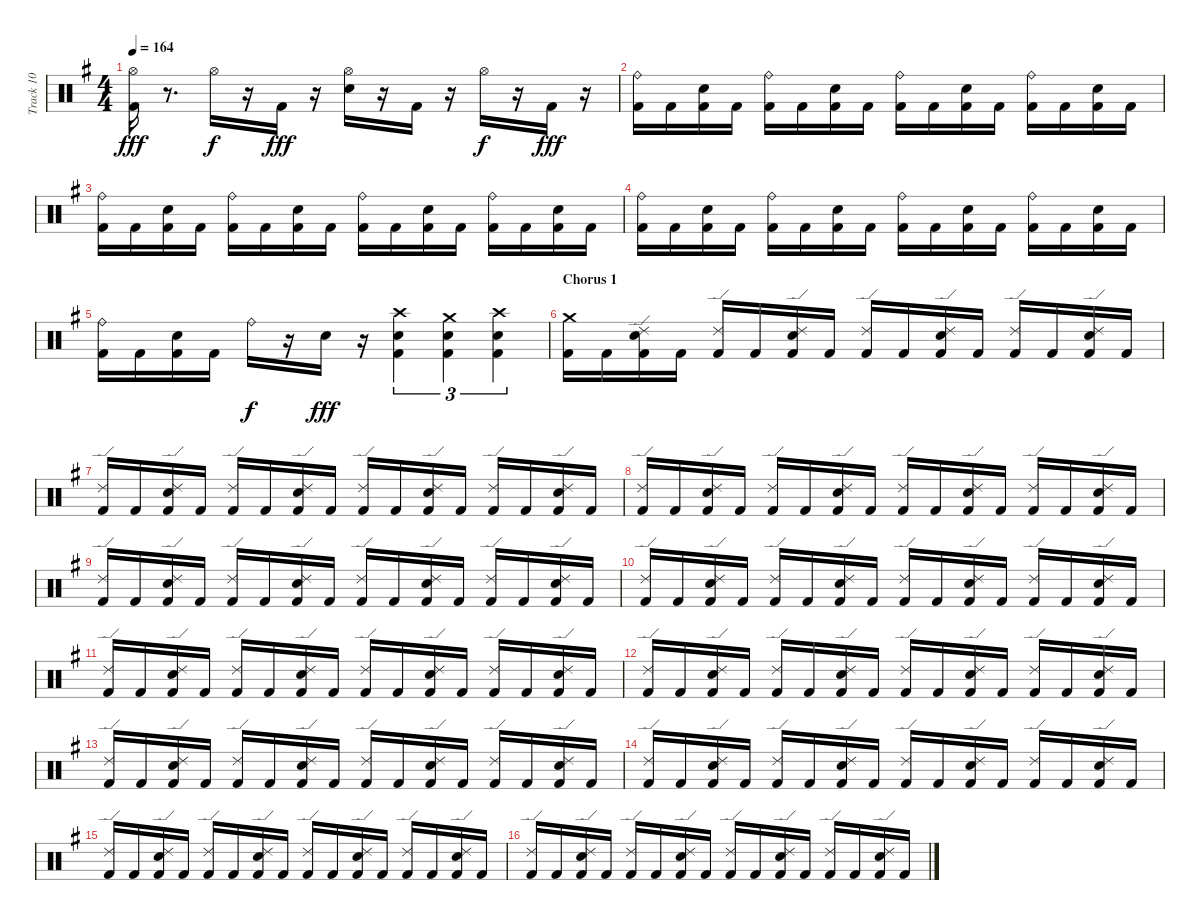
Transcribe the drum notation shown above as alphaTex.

\track ("Track 10" "Track 10") {instrument percussion}
\staff {score}
\articulation defaults
\ts (4 4)
\tempo 164
\clef neutral
\ks eminor
("Kick (hit) 2" "Hi-Hat (open)").16{dy fff} r.8{d} "Hi-Hat (open)".16{dy f} r.16 "Kick (hit) 2".16{dy fff} r.16 ("Electric Snare (hit)" "Hi-Hat (open)").16 r.16 "Kick (hit) 2".16 r.16 "Hi-Hat (open)".16{dy f} r.16 "Kick (hit) 2".16{dy fff} r.16 |
("Kick (hit) 2" "Ride (bell)").16 "Kick (hit) 2".16 ("Electric Snare (hit)" "Kick (hit) 2").16 "Kick (hit) 2".16 ("Kick (hit) 2" "Ride (bell)").16 "Kick (hit) 2".16 ("Electric Snare (hit)" "Kick (hit) 2").16 "Kick (hit) 2".16 ("Kick (hit) 2" "Ride (bell)").16 "Kick (hit) 2".16 ("Kick (hit) 2" "Electric Snare (hit)").16 "Kick (hit) 2".16 ("Kick (hit) 2" "Ride (bell)").16 "Kick (hit) 2".16 ("Electric Snare (hit)" "Kick (hit) 2").16 "Kick (hit) 2".16 |
("Kick (hit) 2" "Ride (bell)").16 "Kick (hit) 2".16 ("Electric Snare (hit)" "Kick (hit) 2").16 "Kick (hit) 2".16 ("Kick (hit) 2" "Ride (bell)").16 "Kick (hit) 2".16 ("Kick (hit) 2" "Electric Snare (hit)").16 "Kick (hit) 2".16 ("Kick (hit) 2" "Ride (bell)").16 "Kick (hit) 2".16 ("Kick (hit) 2" "Electric Snare (hit)").16 "Kick (hit) 2".16 ("Kick (hit) 2" "Ride (bell)").16 "Kick (hit) 2".16 ("Kick (hit) 2" "Electric Snare (hit)").16 "Kick (hit) 2".16 |
("Kick (hit) 2" "Ride (bell)").16 "Kick (hit) 2".16 ("Kick (hit) 2" "Electric Snare (hit)").16 "Kick (hit) 2".16 ("Kick (hit) 2" "Ride (bell)").16 "Kick (hit) 2".16 ("Electric Snare (hit)" "Kick (hit) 2").16 "Kick (hit) 2".16 ("Kick (hit) 2" "Ride (bell)").16 "Kick (hit) 2".16 ("Kick (hit) 2" "Electric Snare (hit)").16 "Kick (hit) 2".16 ("Kick (hit) 2" "Ride (bell)").16 "Kick (hit) 2".16 ("Electric Snare (hit)" "Kick (hit) 2").16 "Kick (hit) 2".16 |
("Kick (hit) 2" "Ride (bell)").16 "Kick (hit) 2".16 ("Kick (hit) 2" "Electric Snare (hit)").16 "Kick (hit) 2".16 "Ride (bell)".16{dy f} r.16 "Electric Snare (hit)".16{dy fff} r.16 ("Electric Snare (hit)" "Kick (hit) 2" "Crash high (hit)").4{tu (3 2)} ("Electric Snare (hit)" "Kick (hit) 2" "Crash medium (hit)").4{tu (3 2)} ("Kick (hit) 2" "Electric Snare (hit)" "Crash high (hit)").4{tu (3 2)} |
\section ("" "Chorus 1")
("Kick (hit) 2" "Crash medium (hit)").16 "Kick (hit) 2".16 ("Kick (hit) 2" "Electric Snare (hit)" "Ride (edge) 2").16 "Kick (hit) 2".16 ("Kick (hit) 2" "Ride (edge) 2").16 "Kick (hit) 2".16 ("Kick (hit) 2" "Electric Snare (hit)" "Ride (edge) 2").16 "Kick (hit) 2".16 ("Kick (hit) 2" "Ride (edge) 2").16 "Kick (hit) 2".16 ("Electric Snare (hit)" "Kick (hit) 2" "Ride (edge) 2").16 "Kick (hit) 2".16 ("Kick (hit) 2" "Ride (edge) 2").16 "Kick (hit) 2".16 ("Electric Snare (hit)" "Kick (hit) 2" "Ride (edge) 2").16 "Kick (hit) 2".16 |
("Kick (hit) 2" "Ride (edge) 2").16 "Kick (hit) 2".16 ("Kick (hit) 2" "Electric Snare (hit)" "Ride (edge) 2").16 "Kick (hit) 2".16 ("Kick (hit) 2" "Ride (edge) 2").16 "Kick (hit) 2".16 ("Kick (hit) 2" "Electric Snare (hit)" "Ride (edge) 2").16 "Kick (hit) 2".16 ("Kick (hit) 2" "Ride (edge) 2").16 "Kick (hit) 2".16 ("Kick (hit) 2" "Electric Snare (hit)" "Ride (edge) 2").16 "Kick (hit) 2".16 ("Kick (hit) 2" "Ride (edge) 2").16 "Kick (hit) 2".16 ("Kick (hit) 2" "Electric Snare (hit)" "Ride (edge) 2").16 "Kick (hit) 2".16 |
("Kick (hit) 2" "Ride (edge) 2").16 "Kick (hit) 2".16 ("Electric Snare (hit)" "Kick (hit) 2" "Ride (edge) 2").16 "Kick (hit) 2".16 ("Kick (hit) 2" "Ride (edge) 2").16 "Kick (hit) 2".16 ("Kick (hit) 2" "Electric Snare (hit)" "Ride (edge) 2").16 "Kick (hit) 2".16 ("Kick (hit) 2" "Ride (edge) 2").16 "Kick (hit) 2".16 ("Kick (hit) 2" "Electric Snare (hit)" "Ride (edge) 2").16 "Kick (hit) 2".16 ("Kick (hit) 2" "Ride (edge) 2").16 "Kick (hit) 2".16 ("Kick (hit) 2" "Electric Snare (hit)" "Ride (edge) 2").16 "Kick (hit) 2".16 |
("Kick (hit) 2" "Ride (edge) 2").16 "Kick (hit) 2".16 ("Kick (hit) 2" "Electric Snare (hit)" "Ride (edge) 2").16 "Kick (hit) 2".16 ("Kick (hit) 2" "Ride (edge) 2").16 "Kick (hit) 2".16 ("Kick (hit) 2" "Electric Snare (hit)" "Ride (edge) 2").16 "Kick (hit) 2".16 ("Kick (hit) 2" "Ride (edge) 2").16 "Kick (hit) 2".16 ("Kick (hit) 2" "Electric Snare (hit)" "Ride (edge) 2").16 "Kick (hit) 2".16 ("Kick (hit) 2" "Ride (edge) 2").16 "Kick (hit) 2".16 ("Kick (hit) 2" "Electric Snare (hit)" "Ride (edge) 2").16 "Kick (hit) 2".16 |
("Kick (hit) 2" "Ride (edge) 2").16 "Kick (hit) 2".16 ("Electric Snare (hit)" "Kick (hit) 2" "Ride (edge) 2").16 "Kick (hit) 2".16 ("Kick (hit) 2" "Ride (edge) 2").16 "Kick (hit) 2".16 ("Electric Snare (hit)" "Kick (hit) 2" "Ride (edge) 2").16 "Kick (hit) 2".16 ("Kick (hit) 2" "Ride (edge) 2").16 "Kick (hit) 2".16 ("Kick (hit) 2" "Electric Snare (hit)" "Ride (edge) 2").16 "Kick (hit) 2".16 ("Kick (hit) 2" "Ride (edge) 2").16 "Kick (hit) 2".16 ("Kick (hit) 2" "Electric Snare (hit)" "Ride (edge) 2").16 "Kick (hit) 2".16 |
("Kick (hit) 2" "Ride (edge) 2").16 "Kick (hit) 2".16 ("Electric Snare (hit)" "Kick (hit) 2" "Ride (edge) 2").16 "Kick (hit) 2".16 ("Kick (hit) 2" "Ride (edge) 2").16 "Kick (hit) 2".16 ("Kick (hit) 2" "Electric Snare (hit)" "Ride (edge) 2").16 "Kick (hit) 2".16 ("Kick (hit) 2" "Ride (edge) 2").16 "Kick (hit) 2".16 ("Electric Snare (hit)" "Kick (hit) 2" "Ride (edge) 2").16 "Kick (hit) 2".16 ("Kick (hit) 2" "Ride (edge) 2").16 "Kick (hit) 2".16 ("Electric Snare (hit)" "Kick (hit) 2" "Ride (edge) 2").16 "Kick (hit) 2".16 |
("Kick (hit) 2" "Ride (edge) 2").16 "Kick (hit) 2".16 ("Kick (hit) 2" "Electric Snare (hit)" "Ride (edge) 2").16 "Kick (hit) 2".16 ("Kick (hit) 2" "Ride (edge) 2").16 "Kick (hit) 2".16 ("Electric Snare (hit)" "Kick (hit) 2" "Ride (edge) 2").16 "Kick (hit) 2".16 ("Kick (hit) 2" "Ride (edge) 2").16 "Kick (hit) 2".16 ("Electric Snare (hit)" "Kick (hit) 2" "Ride (edge) 2").16 "Kick (hit) 2".16 ("Kick (hit) 2" "Ride (edge) 2").16 "Kick (hit) 2".16 ("Kick (hit) 2" "Electric Snare (hit)" "Ride (edge) 2").16 "Kick (hit) 2".16 |
("Kick (hit) 2" "Ride (edge) 2").16 "Kick (hit) 2".16 ("Electric Snare (hit)" "Kick (hit) 2" "Ride (edge) 2").16 "Kick (hit) 2".16 ("Kick (hit) 2" "Ride (edge) 2").16 "Kick (hit) 2".16 ("Electric Snare (hit)" "Kick (hit) 2" "Ride (edge) 2").16 "Kick (hit) 2".16 ("Kick (hit) 2" "Ride (edge) 2").16 "Kick (hit) 2".16 ("Electric Snare (hit)" "Kick (hit) 2" "Ride (edge) 2").16 "Kick (hit) 2".16 ("Kick (hit) 2" "Ride (edge) 2").16 "Kick (hit) 2".16 ("Electric Snare (hit)" "Kick (hit) 2" "Ride (edge) 2").16 "Kick (hit) 2".16 |
("Kick (hit) 2" "Ride (edge) 2").16 "Kick (hit) 2".16 ("Kick (hit) 2" "Electric Snare (hit)" "Ride (edge) 2").16 "Kick (hit) 2".16 ("Kick (hit) 2" "Ride (edge) 2").16 "Kick (hit) 2".16 ("Kick (hit) 2" "Electric Snare (hit)" "Ride (edge) 2").16 "Kick (hit) 2".16 ("Kick (hit) 2" "Ride (edge) 2").16 "Kick (hit) 2".16 ("Electric Snare (hit)" "Kick (hit) 2" "Ride (edge) 2").16 "Kick (hit) 2".16 ("Kick (hit) 2" "Ride (edge) 2").16 "Kick (hit) 2".16 ("Electric Snare (hit)" "Kick (hit) 2" "Ride (edge) 2").16 "Kick (hit) 2".16 |
("Kick (hit) 2" "Ride (edge) 2").16 "Kick (hit) 2".16 ("Electric Snare (hit)" "Kick (hit) 2" "Ride (edge) 2").16 "Kick (hit) 2".16 ("Kick (hit) 2" "Ride (edge) 2").16 "Kick (hit) 2".16 ("Electric Snare (hit)" "Kick (hit) 2" "Ride (edge) 2").16 "Kick (hit) 2".16 ("Kick (hit) 2" "Ride (edge) 2").16 "Kick (hit) 2".16 ("Electric Snare (hit)" "Kick (hit) 2" "Ride (edge) 2").16 "Kick (hit) 2".16 ("Kick (hit) 2" "Ride (edge) 2").16 "Kick (hit) 2".16 ("Kick (hit) 2" "Electric Snare (hit)" "Ride (edge) 2").16 "Kick (hit) 2".16 |
("Kick (hit) 2" "Ride (edge) 2").16 "Kick (hit) 2".16 ("Electric Snare (hit)" "Kick (hit) 2" "Ride (edge) 2").16 "Kick (hit) 2".16 ("Kick (hit) 2" "Ride (edge) 2").16 "Kick (hit) 2".16 ("Kick (hit) 2" "Electric Snare (hit)" "Ride (edge) 2").16 "Kick (hit) 2".16 ("Kick (hit) 2" "Ride (edge) 2").16 "Kick (hit) 2".16 ("Electric Snare (hit)" "Kick (hit) 2" "Ride (edge) 2").16 "Kick (hit) 2".16 ("Kick (hit) 2" "Ride (edge) 2").16 "Kick (hit) 2".16 ("Electric Snare (hit)" "Kick (hit) 2" "Ride (edge) 2").16 "Kick (hit) 2".16
